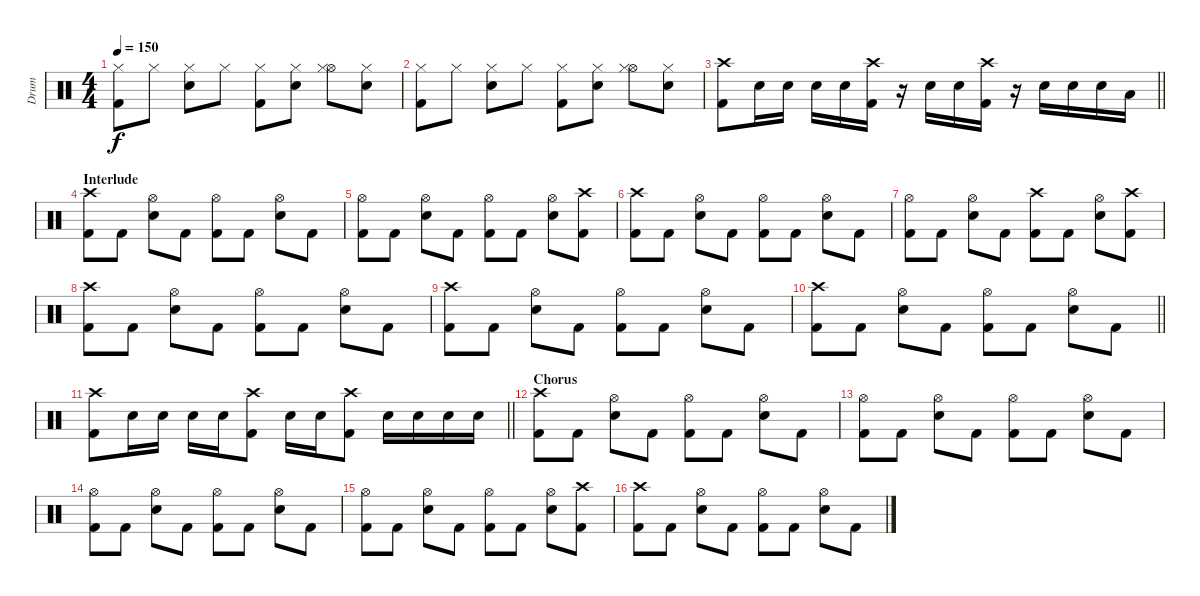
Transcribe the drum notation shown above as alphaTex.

\track ("Drum" "Drum") {instrument percussion}
\staff {score}
\articulation defaults
\ts (4 4)
\tempo 150
\clef neutral
\ks c
("Kick (hit) 2" "Hi-Hat (closed)").8{dy f} "Hi-Hat (closed)".8 ("Electric Snare (hit)" "Hi-Hat (closed)").8 "Hi-Hat (closed)".8 ("Kick (hit) 2" "Hi-Hat (closed)").8 ("Electric Snare (hit)" "Hi-Hat (closed)").8 ("Hi-Hat (open)" "Hi-Hat (closed)").8 ("Electric Snare (hit)" "Hi-Hat (closed)").8 |
("Kick (hit) 2" "Hi-Hat (closed)").8 "Hi-Hat (closed)".8 ("Electric Snare (hit)" "Hi-Hat (closed)").8 "Hi-Hat (closed)".8 ("Kick (hit) 2" "Hi-Hat (closed)").8 ("Electric Snare (hit)" "Hi-Hat (closed)").8 ("Hi-Hat (open)" "Hi-Hat (closed)").8 ("Electric Snare (hit)" "Hi-Hat (closed)").8 |
\barLineRight lightlight
("Kick (hit) 2" "Crash high (hit)").8 "Electric Snare (hit)".16 "Electric Snare (hit)".16 "Electric Snare (hit)".16 "Electric Snare (hit)".16 ("Kick (hit) 2" "Crash high (hit)").16 r.16 "Electric Snare (hit)".16 "Electric Snare (hit)".16 ("Kick (hit) 2" "Crash high (hit)").16 r.16 "Electric Snare (hit)".16 "Electric Snare (hit)".16 "Electric Snare (hit)".16 "Low Floor Tom (hit)".16 |
\section ("" "Interlude")
("Kick (hit) 2" "Crash high (hit)").8 "Kick (hit) 2".8 ("Electric Snare (hit)" "Hi-Hat (open)").8 "Kick (hit) 2".8 ("Kick (hit) 2" "Hi-Hat (open)").8 "Kick (hit) 2".8 ("Electric Snare (hit)" "Hi-Hat (open)").8 "Kick (hit) 2".8 |
("Kick (hit) 2" "Hi-Hat (open)").8 "Kick (hit) 2".8 ("Electric Snare (hit)" "Hi-Hat (open)").8 "Kick (hit) 2".8 ("Kick (hit) 2" "Hi-Hat (open)").8 "Kick (hit) 2".8 ("Electric Snare (hit)" "Hi-Hat (open)").8 ("Kick (hit) 2" "Crash high (hit)").8 |
("Kick (hit) 2" "Crash high (hit)").8 "Kick (hit) 2".8 ("Electric Snare (hit)" "Hi-Hat (open)").8 "Kick (hit) 2".8 ("Kick (hit) 2" "Hi-Hat (open)").8 "Kick (hit) 2".8 ("Electric Snare (hit)" "Hi-Hat (open)").8 "Kick (hit) 2".8 |
("Kick (hit) 2" "Hi-Hat (open)").8 "Kick (hit) 2".8 ("Electric Snare (hit)" "Hi-Hat (open)").8 "Kick (hit) 2".8 ("Kick (hit) 2" "Crash high (hit)").8 "Kick (hit) 2".8 ("Electric Snare (hit)" "Hi-Hat (open)").8 ("Kick (hit) 2" "Crash high (hit)").8 |
("Kick (hit) 2" "Crash high (hit)").8 "Kick (hit) 2".8 ("Electric Snare (hit)" "Hi-Hat (open)").8 "Kick (hit) 2".8 ("Kick (hit) 2" "Hi-Hat (open)").8 "Kick (hit) 2".8 ("Electric Snare (hit)" "Hi-Hat (open)").8 "Kick (hit) 2".8 |
("Kick (hit) 2" "Crash high (hit)").8 "Kick (hit) 2".8 ("Electric Snare (hit)" "Hi-Hat (open)").8 "Kick (hit) 2".8 ("Kick (hit) 2" "Hi-Hat (open)").8 "Kick (hit) 2".8 ("Electric Snare (hit)" "Hi-Hat (open)").8 "Kick (hit) 2".8 |
\barLineRight lightlight
("Kick (hit) 2" "Crash high (hit)").8 "Kick (hit) 2".8 ("Electric Snare (hit)" "Hi-Hat (open)").8 "Kick (hit) 2".8 ("Kick (hit) 2" "Hi-Hat (open)").8 "Kick (hit) 2".8 ("Electric Snare (hit)" "Hi-Hat (open)").8 "Kick (hit) 2".8 |
\barLineRight lightlight
("Kick (hit) 2" "Crash high (hit)").8 "Electric Snare (hit)".16 "Electric Snare (hit)".16 "Electric Snare (hit)".16 "Electric Snare (hit)".16 ("Kick (hit) 2" "Crash high (hit)").8 "Electric Snare (hit)".16 "Electric Snare (hit)".16 ("Kick (hit) 2" "Crash high (hit)").8 "Electric Snare (hit)".16 "Electric Snare (hit)".16 "Electric Snare (hit)".16 "Electric Snare (hit)".16 |
\section ("" "Chorus")
("Kick (hit) 2" "Crash high (hit)").8 "Kick (hit) 2".8 ("Electric Snare (hit)" "Hi-Hat (open)").8 "Kick (hit) 2".8 ("Kick (hit) 2" "Hi-Hat (open)").8 "Kick (hit) 2".8 ("Electric Snare (hit)" "Hi-Hat (open)").8 "Kick (hit) 2".8 |
("Kick (hit) 2" "Hi-Hat (open)").8 "Kick (hit) 2".8 ("Electric Snare (hit)" "Hi-Hat (open)").8 "Kick (hit) 2".8 ("Kick (hit) 2" "Hi-Hat (open)").8 "Kick (hit) 2".8 ("Electric Snare (hit)" "Hi-Hat (open)").8 "Kick (hit) 2".8 |
("Kick (hit) 2" "Hi-Hat (open)").8 "Kick (hit) 2".8 ("Electric Snare (hit)" "Hi-Hat (open)").8 "Kick (hit) 2".8 ("Kick (hit) 2" "Hi-Hat (open)").8 "Kick (hit) 2".8 ("Electric Snare (hit)" "Hi-Hat (open)").8 "Kick (hit) 2".8 |
("Kick (hit) 2" "Hi-Hat (open)").8 "Kick (hit) 2".8 ("Electric Snare (hit)" "Hi-Hat (open)").8 "Kick (hit) 2".8 ("Kick (hit) 2" "Hi-Hat (open)").8 "Kick (hit) 2".8 ("Electric Snare (hit)" "Hi-Hat (open)").8 ("Kick (hit) 2" "Crash high (hit)").8 |
("Kick (hit) 2" "Crash high (hit)").8 "Kick (hit) 2".8 ("Electric Snare (hit)" "Hi-Hat (open)").8 "Kick (hit) 2".8 ("Kick (hit) 2" "Hi-Hat (open)").8 "Kick (hit) 2".8 ("Electric Snare (hit)" "Hi-Hat (open)").8 "Kick (hit) 2".8
